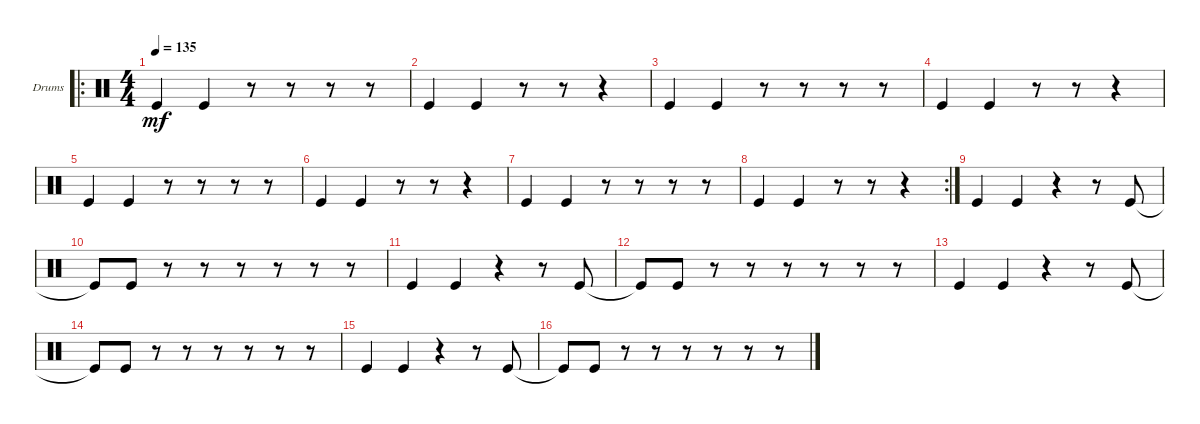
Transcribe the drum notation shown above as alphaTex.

\defaultSystemsLayout 4
\bracketExtendMode groupsimilarinstruments
\firstSystemTrackNameOrientation horizontal
\otherSystemsTrackNameOrientation horizontal
\track ("Drumkit" "Drums") {instrument percussion}
\staff {score}
\articulation defaults
\ro
\ts (4 4)
\tempo 135
\clef neutral
\ks c "Kick (hit)".4{dy mf} "Kick (hit)".4
r.8 r.8 r.8 r.8 |
"Kick (hit)".4 "Kick (hit)".4 r.8 r.8 r.4 |
"Kick (hit)".4 "Kick (hit)".4 r.8 r.8 r.8 r.8 |
"Kick (hit)".4 "Kick (hit)".4 r.8 r.8 r.4 |
"Kick (hit)".4 "Kick (hit)".4 r.8 r.8 r.8 r.8 |
"Kick (hit)".4 "Kick (hit)".4 r.8 r.8 r.4 |
"Kick (hit)".4 "Kick (hit)".4 r.8 r.8 r.8 r.8 |
\rc 2 "Kick (hit)".4 "Kick (hit)".4
r.8 r.8 r.4 |
"Kick (hit)".4 "Kick (hit)".4 r.4 r.8 "Kick (hit)".8 |
"Kick (hit)"{t}.8 "Kick (hit)".8 r.8 r.8 r.8 r.8 r.8 r.8 |
"Kick (hit)".4 "Kick (hit)".4 r.4 r.8 "Kick (hit)".8 |
"Kick (hit)"{t}.8 "Kick (hit)".8 r.8 r.8 r.8 r.8 r.8 r.8 |
"Kick (hit)".4 "Kick (hit)".4 r.4 r.8 "Kick (hit)".8 |
"Kick (hit)"{t}.8 "Kick (hit)".8 r.8 r.8 r.8 r.8 r.8 r.8 |
"Kick (hit)".4 "Kick (hit)".4 r.4 r.8 "Kick (hit)".8 |
"Kick (hit)"{t}.8 "Kick (hit)".8 r.8 r.8 r.8 r.8 r.8 r.8
